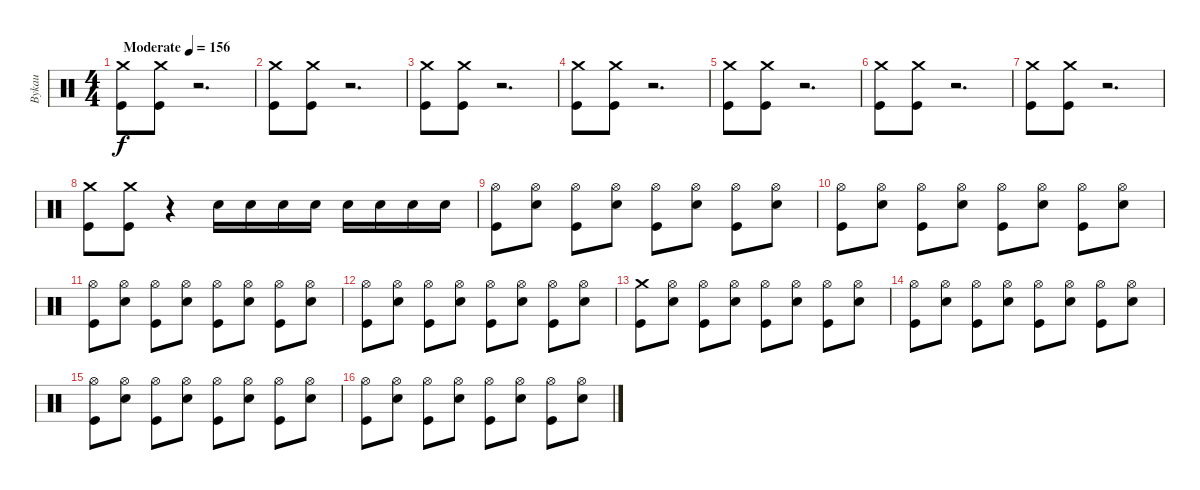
\track ("Bykau" "Bykau") {instrument percussion}
\staff {score}
\articulation defaults
\ts (4 4)
\tempo (156 "Moderate")
\clef neutral
\ks c
("Crash medium (hit)" "Kick (hit)").8{dy f} ("Crash medium (hit)" "Kick (hit)").8 r.2{d} |
("Crash medium (hit)" "Kick (hit)").8 ("Crash medium (hit)" "Kick (hit)").8 r.2{d} |
("Crash medium (hit)" "Kick (hit)").8 ("Crash medium (hit)" "Kick (hit)").8 r.2{d} |
("Crash medium (hit)" "Kick (hit)").8 ("Crash medium (hit)" "Kick (hit)").8 r.2{d} |
("Crash medium (hit)" "Kick (hit)").8 ("Crash medium (hit)" "Kick (hit)").8 r.2{d} |
("Crash medium (hit)" "Kick (hit)").8 ("Crash medium (hit)" "Kick (hit)").8 r.2{d} |
("Crash medium (hit)" "Kick (hit)").8 ("Crash medium (hit)" "Kick (hit)").8 r.2{d} |
("Crash medium (hit)" "Kick (hit)").8 ("Crash medium (hit)" "Kick (hit)").8 r.4 "Electric Snare (hit)".16 "Electric Snare (hit)".16 "Electric Snare (hit)".16 "Electric Snare (hit)".16 "Electric Snare (hit)".16 "Electric Snare (hit)".16 "Electric Snare (hit)".16 "Electric Snare (hit)".16 |
("Hi-Hat (open)" "Kick (hit)").8 ("Hi-Hat (open)" "Electric Snare (hit)").8 ("Hi-Hat (open)" "Kick (hit)").8 ("Hi-Hat (open)" "Electric Snare (hit)").8 ("Hi-Hat (open)" "Kick (hit)").8 ("Hi-Hat (open)" "Electric Snare (hit)").8 ("Hi-Hat (open)" "Kick (hit)").8 ("Hi-Hat (open)" "Electric Snare (hit)").8 |
("Hi-Hat (open)" "Kick (hit)").8 ("Hi-Hat (open)" "Electric Snare (hit)").8 ("Hi-Hat (open)" "Kick (hit)").8 ("Hi-Hat (open)" "Electric Snare (hit)").8 ("Hi-Hat (open)" "Kick (hit)").8 ("Hi-Hat (open)" "Electric Snare (hit)").8 ("Hi-Hat (open)" "Kick (hit)").8 ("Hi-Hat (open)" "Electric Snare (hit)").8 |
("Hi-Hat (open)" "Kick (hit)").8 ("Hi-Hat (open)" "Electric Snare (hit)").8 ("Hi-Hat (open)" "Kick (hit)").8 ("Hi-Hat (open)" "Electric Snare (hit)").8 ("Hi-Hat (open)" "Kick (hit)").8 ("Hi-Hat (open)" "Electric Snare (hit)").8 ("Hi-Hat (open)" "Kick (hit)").8 ("Hi-Hat (open)" "Electric Snare (hit)").8 |
("Hi-Hat (open)" "Kick (hit)").8 ("Hi-Hat (open)" "Electric Snare (hit)").8 ("Hi-Hat (open)" "Kick (hit)").8 ("Hi-Hat (open)" "Electric Snare (hit)").8 ("Hi-Hat (open)" "Kick (hit)").8 ("Hi-Hat (open)" "Electric Snare (hit)").8 ("Hi-Hat (open)" "Kick (hit)").8 ("Hi-Hat (open)" "Electric Snare (hit)").8 |
("Crash medium (hit)" "Kick (hit)").8 ("Hi-Hat (open)" "Electric Snare (hit)").8 ("Hi-Hat (open)" "Kick (hit)").8 ("Hi-Hat (open)" "Electric Snare (hit)").8 ("Hi-Hat (open)" "Kick (hit)").8 ("Hi-Hat (open)" "Electric Snare (hit)").8 ("Hi-Hat (open)" "Kick (hit)").8 ("Hi-Hat (open)" "Electric Snare (hit)").8 |
("Hi-Hat (open)" "Kick (hit)").8 ("Hi-Hat (open)" "Electric Snare (hit)").8 ("Hi-Hat (open)" "Kick (hit)").8 ("Hi-Hat (open)" "Electric Snare (hit)").8 ("Hi-Hat (open)" "Kick (hit)").8 ("Hi-Hat (open)" "Electric Snare (hit)").8 ("Hi-Hat (open)" "Kick (hit)").8 ("Hi-Hat (open)" "Electric Snare (hit)").8 |
("Hi-Hat (open)" "Kick (hit)").8 ("Hi-Hat (open)" "Electric Snare (hit)").8 ("Hi-Hat (open)" "Kick (hit)").8 ("Hi-Hat (open)" "Electric Snare (hit)").8 ("Hi-Hat (open)" "Kick (hit)").8 ("Hi-Hat (open)" "Electric Snare (hit)").8 ("Hi-Hat (open)" "Kick (hit)").8 ("Hi-Hat (open)" "Electric Snare (hit)").8 |
("Hi-Hat (open)" "Kick (hit)").8 ("Hi-Hat (open)" "Electric Snare (hit)").8 ("Hi-Hat (open)" "Kick (hit)").8 ("Hi-Hat (open)" "Electric Snare (hit)").8 ("Hi-Hat (open)" "Kick (hit)").8 ("Hi-Hat (open)" "Electric Snare (hit)").8 ("Hi-Hat (open)" "Kick (hit)").8 ("Hi-Hat (open)" "Electric Snare (hit)").8
